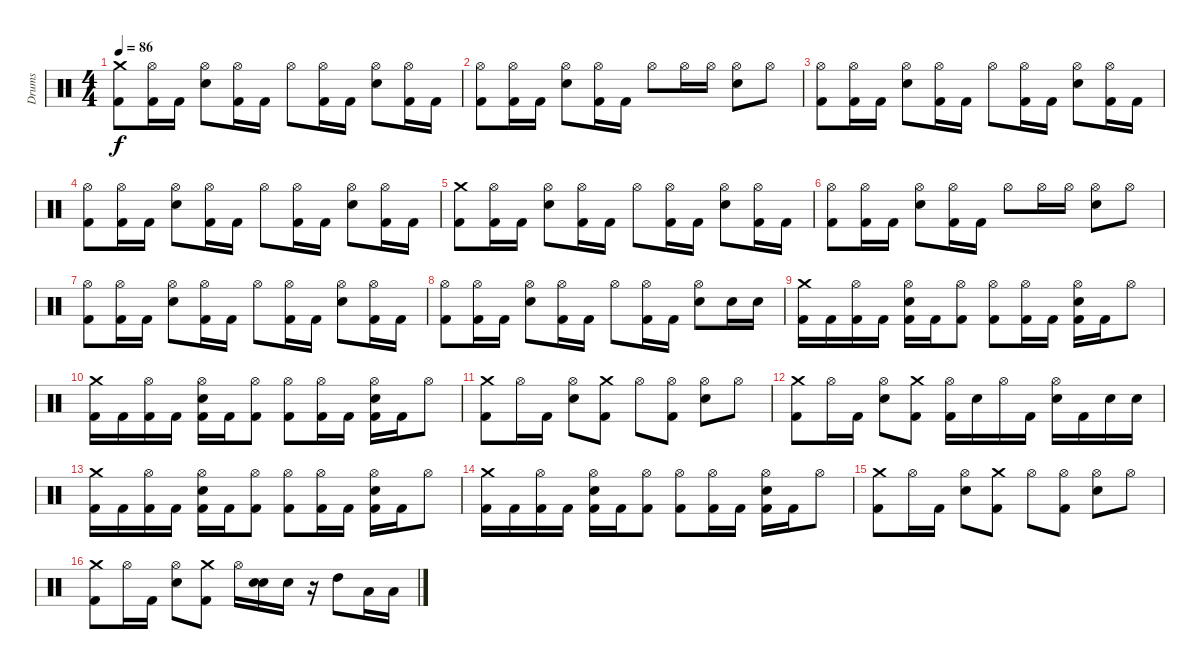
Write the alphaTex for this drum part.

\track ("Drums" "Drums") {instrument percussion}
\staff {score}
\articulation defaults
\ts (4 4)
\tempo 86
\clef neutral
\ks c
("Kick (hit) 2" "Crash medium (hit)").8{dy f} ("Kick (hit) 2" "Hi-Hat (open)").16 "Kick (hit) 2".16 ("Snare (hit) 2" "Hi-Hat (open)").8 ("Kick (hit) 2" "Hi-Hat (open)").16 "Kick (hit) 2".16 "Hi-Hat (open)".8 ("Kick (hit) 2" "Hi-Hat (open)").16 "Kick (hit) 2".16 ("Snare (hit) 2" "Hi-Hat (open)").8 ("Kick (hit) 2" "Hi-Hat (open)").16 "Kick (hit) 2".16 |
("Kick (hit) 2" "Hi-Hat (open)").8 ("Kick (hit) 2" "Hi-Hat (open)").16 "Kick (hit) 2".16 ("Snare (hit) 2" "Hi-Hat (open)").8 ("Kick (hit) 2" "Hi-Hat (open)").16 "Kick (hit) 2".16 "Hi-Hat (open)".8 "Hi-Hat (open)".16 "Hi-Hat (open)".16 ("Snare (hit) 2" "Hi-Hat (open)").8 "Hi-Hat (open)".8 |
("Kick (hit) 2" "Hi-Hat (open)").8 ("Kick (hit) 2" "Hi-Hat (open)").16 "Kick (hit) 2".16 ("Snare (hit) 2" "Hi-Hat (open)").8 ("Kick (hit) 2" "Hi-Hat (open)").16 "Kick (hit) 2".16 "Hi-Hat (open)".8 ("Kick (hit) 2" "Hi-Hat (open)").16 "Kick (hit) 2".16 ("Snare (hit) 2" "Hi-Hat (open)").8 ("Kick (hit) 2" "Hi-Hat (open)").16 "Kick (hit) 2".16 |
("Kick (hit) 2" "Hi-Hat (open)").8 ("Kick (hit) 2" "Hi-Hat (open)").16 "Kick (hit) 2".16 ("Snare (hit) 2" "Hi-Hat (open)").8 ("Kick (hit) 2" "Hi-Hat (open)").16 "Kick (hit) 2".16 "Hi-Hat (open)".8 ("Kick (hit) 2" "Hi-Hat (open)").16 "Kick (hit) 2".16 ("Snare (hit) 2" "Hi-Hat (open)").8 ("Kick (hit) 2" "Hi-Hat (open)").16 "Kick (hit) 2".16 |
("Crash medium (hit)" "Kick (hit) 2").8 ("Kick (hit) 2" "Hi-Hat (open)").16 "Kick (hit) 2".16 ("Snare (hit) 2" "Hi-Hat (open)").8 ("Kick (hit) 2" "Hi-Hat (open)").16 "Kick (hit) 2".16 "Hi-Hat (open)".8 ("Kick (hit) 2" "Hi-Hat (open)").16 "Kick (hit) 2".16 ("Snare (hit) 2" "Hi-Hat (open)").8 ("Kick (hit) 2" "Hi-Hat (open)").16 "Kick (hit) 2".16 |
("Kick (hit) 2" "Hi-Hat (open)").8 ("Kick (hit) 2" "Hi-Hat (open)").16 "Kick (hit) 2".16 ("Snare (hit) 2" "Hi-Hat (open)").8 ("Kick (hit) 2" "Hi-Hat (open)").16 "Kick (hit) 2".16 "Hi-Hat (open)".8 "Hi-Hat (open)".16 "Hi-Hat (open)".16 ("Snare (hit) 2" "Hi-Hat (open)").8 "Hi-Hat (open)".8 |
("Kick (hit) 2" "Hi-Hat (open)").8 ("Kick (hit) 2" "Hi-Hat (open)").16 "Kick (hit) 2".16 ("Snare (hit) 2" "Hi-Hat (open)").8 ("Kick (hit) 2" "Hi-Hat (open)").16 "Kick (hit) 2".16 "Hi-Hat (open)".8 ("Kick (hit) 2" "Hi-Hat (open)").16 "Kick (hit) 2".16 ("Snare (hit) 2" "Hi-Hat (open)").8 ("Kick (hit) 2" "Hi-Hat (open)").16 "Kick (hit) 2".16 |
("Kick (hit) 2" "Hi-Hat (open)").8 ("Kick (hit) 2" "Hi-Hat (open)").16 "Kick (hit) 2".16 ("Snare (hit) 2" "Hi-Hat (open)").8 ("Kick (hit) 2" "Hi-Hat (open)").16 "Kick (hit) 2".16 "Hi-Hat (open)".8 ("Kick (hit) 2" "Hi-Hat (open)").16 "Kick (hit) 2".16 ("Snare (hit) 2" "Hi-Hat (open)").8 "Snare (hit) 2".16 "Snare (hit) 2".16 |
("Kick (hit) 2" "Crash medium (hit)").16 "Kick (hit) 2".16 ("Kick (hit) 2" "Hi-Hat (open)").16 "Kick (hit) 2".16 ("Kick (hit) 2" "Snare (hit) 2" "Hi-Hat (open)").16 "Kick (hit) 2".16 ("Kick (hit) 2" "Hi-Hat (open)").8 ("Kick (hit) 2" "Hi-Hat (open)").8 ("Kick (hit) 2" "Hi-Hat (open)").16 "Kick (hit) 2".16 ("Kick (hit) 2" "Snare (hit) 2" "Hi-Hat (open)").16 "Kick (hit) 2".16 "Hi-Hat (open)".8 |
("Kick (hit) 2" "Crash medium (hit)").16 "Kick (hit) 2".16 ("Kick (hit) 2" "Hi-Hat (open)").16 "Kick (hit) 2".16 ("Kick (hit) 2" "Snare (hit) 2" "Hi-Hat (open)").16 "Kick (hit) 2".16 ("Kick (hit) 2" "Hi-Hat (open)").8 ("Kick (hit) 2" "Hi-Hat (open)").8 ("Kick (hit) 2" "Hi-Hat (open)").16 "Kick (hit) 2".16 ("Kick (hit) 2" "Snare (hit) 2" "Hi-Hat (open)").16 "Kick (hit) 2".16 "Hi-Hat (open)".8 |
("Kick (hit) 2" "Crash medium (hit)").8 "Hi-Hat (open)".16 "Kick (hit) 2".16 ("Snare (hit) 2" "Hi-Hat (open)").8 ("Kick (hit) 2" "Crash medium (hit)").8 "Hi-Hat (open)".8 ("Kick (hit) 2" "Hi-Hat (open)").8 ("Snare (hit) 2" "Hi-Hat (open)").8 "Hi-Hat (open)".8 |
("Kick (hit) 2" "Crash medium (hit)").8 "Hi-Hat (open)".16 "Kick (hit) 2".16 ("Snare (hit) 2" "Hi-Hat (open)").8 ("Kick (hit) 2" "Crash medium (hit)").8 ("Kick (hit) 2" "Hi-Hat (open)").16 "Snare (hit) 2".16 "Hi-Hat (open)".16 "Kick (hit) 2".16 ("Snare (hit) 2" "Hi-Hat (open)").16 "Kick (hit) 2".16 "Snare (hit) 2".16 "Snare (hit) 2".16 |
("Kick (hit) 2" "Crash medium (hit)").16 "Kick (hit) 2".16 ("Kick (hit) 2" "Hi-Hat (open)").16 "Kick (hit) 2".16 ("Kick (hit) 2" "Snare (hit) 2" "Hi-Hat (open)").16 "Kick (hit) 2".16 ("Kick (hit) 2" "Hi-Hat (open)").8 ("Kick (hit) 2" "Hi-Hat (open)").8 ("Kick (hit) 2" "Hi-Hat (open)").16 "Kick (hit) 2".16 ("Kick (hit) 2" "Snare (hit) 2" "Hi-Hat (open)").16 "Kick (hit) 2".16 "Hi-Hat (open)".8 |
("Kick (hit) 2" "Crash medium (hit)").16 "Kick (hit) 2".16 ("Kick (hit) 2" "Hi-Hat (open)").16 "Kick (hit) 2".16 ("Kick (hit) 2" "Snare (hit) 2" "Hi-Hat (open)").16 "Kick (hit) 2".16 ("Kick (hit) 2" "Hi-Hat (open)").8 ("Kick (hit) 2" "Hi-Hat (open)").8 ("Kick (hit) 2" "Hi-Hat (open)").16 "Kick (hit) 2".16 ("Kick (hit) 2" "Snare (hit) 2" "Hi-Hat (open)").16 "Kick (hit) 2".16 "Hi-Hat (open)".8 |
("Kick (hit) 2" "Crash medium (hit)").8 "Hi-Hat (open)".16 "Kick (hit) 2".16 ("Snare (hit) 2" "Hi-Hat (open)").8 ("Kick (hit) 2" "Crash medium (hit)").8 "Hi-Hat (open)".8 ("Kick (hit) 2" "Hi-Hat (open)").8 ("Snare (hit) 2" "Hi-Hat (open)").8 "Hi-Hat (open)".8 |
("Kick (hit) 2" "Crash medium (hit)").8 "Hi-Hat (open)".16 "Kick (hit) 2".16 ("Snare (hit) 2" "Hi-Hat (open)").8 ("Kick (hit) 2" "Crash medium (hit)").8 "Hi-Hat (open)".16 ("Snare (hit) 2" "Snare (hit) 2").16 "Snare (hit) 2".16 r.16 "High Tom (hit)".8 "Low Tom (hit)".16 "Low Tom (hit)".16
